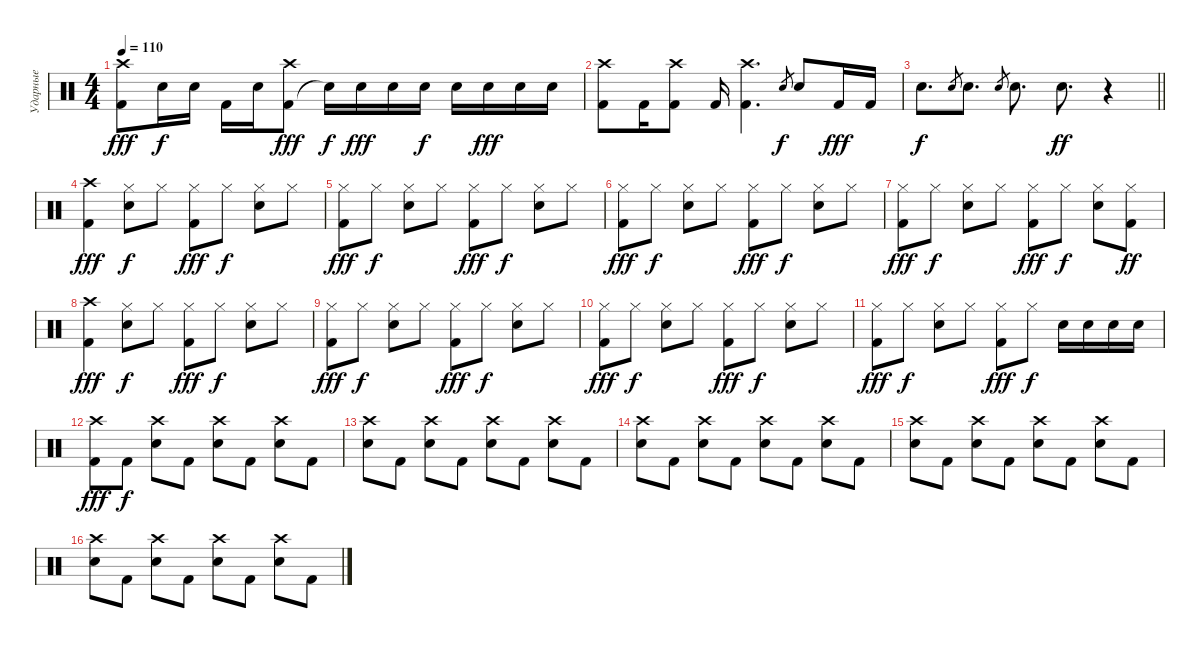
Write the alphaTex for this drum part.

\track ("Ударные" "Ударные") {instrument percussion}
\staff
\articulation defaults
\ts (4 4)
\tempo 110
\clef neutral
\ks c
("Kick (hit) 2" "Crash high (hit)").8{dy fff} "Snare (hit) 2".16{dy f} "Snare (hit) 2".16 "Kick (hit) 2".16 "Snare (hit) 2".16 ("Kick (hit) 2" "Crash high (hit)").8{dy fff} "Snare (hit)"{t}.16{dy f} "Electric Snare (hit)".16{dy fff} "Electric Snare (hit)".16 "Snare (hit) 2".16{dy f} "Snare (hit) 2".16 "Electric Snare (hit)".16{dy fff} "Electric Snare (hit)".16 "Electric Snare (hit)".16 |
("Kick (hit) 2" "Crash high (hit)").8 "Kick (hit) 2".16 ("Kick (hit) 2" "Crash high (hit)").8 "Kick (hit) 2".16 ("Kick (hit) 2" "Crash high (hit)").4{d} "Snare (hit) 2".8{gr dy f} "Snare (hit) 2".8 "Kick (hit) 2".16{dy fff} "Kick (hit) 2".16 |
\barLineRight lightlight "Snare (hit) 2".8{d dy f} "Electric Snare (hit)".8{gr} "Electric Snare (hit)".8{d} "Electric Snare (hit)".8{gr} "Electric Snare (hit)".8{d} "Snare (hit) 2".8{d dy ff}
r.4 |
("Kick (hit) 2" "Crash high (hit)").4{dy fff} ("Snare (hit) 2" "Hi-Hat (closed)").8{dy f} "Hi-Hat (closed)".8 ("Kick (hit) 2" "Hi-Hat (closed)").8{dy fff} "Hi-Hat (closed)".8{dy f} ("Snare (hit) 2" "Hi-Hat (closed)").8 "Hi-Hat (closed)".8 |
("Kick (hit) 2" "Hi-Hat (closed)").8{dy fff} "Hi-Hat (closed)".8{dy f} ("Snare (hit) 2" "Hi-Hat (closed)").8 "Hi-Hat (closed)".8 ("Kick (hit) 2" "Hi-Hat (closed)").8{dy fff} "Hi-Hat (closed)".8{dy f} ("Snare (hit) 2" "Hi-Hat (closed)").8 "Hi-Hat (closed)".8 |
("Kick (hit) 2" "Hi-Hat (closed)").8{dy fff} "Hi-Hat (closed)".8{dy f} ("Snare (hit) 2" "Hi-Hat (closed)").8 "Hi-Hat (closed)".8 ("Kick (hit) 2" "Hi-Hat (closed)").8{dy fff} "Hi-Hat (closed)".8{dy f} ("Snare (hit) 2" "Hi-Hat (closed)").8 "Hi-Hat (closed)".8 |
("Kick (hit) 2" "Hi-Hat (closed)").8{dy fff} "Hi-Hat (closed)".8{dy f} ("Snare (hit) 2" "Hi-Hat (closed)").8 "Hi-Hat (closed)".8 ("Kick (hit) 2" "Hi-Hat (closed)").8{dy fff} "Hi-Hat (closed)".8{dy f} ("Snare (hit) 2" "Hi-Hat (closed)").8 ("Kick (hit) 2" "Hi-Hat (closed)").8{dy ff} |
("Kick (hit) 2" "Crash high (hit)").4{dy fff} ("Snare (hit) 2" "Hi-Hat (closed)").8{dy f} "Hi-Hat (closed)".8 ("Kick (hit) 2" "Hi-Hat (closed)").8{dy fff} "Hi-Hat (closed)".8{dy f} ("Snare (hit) 2" "Hi-Hat (closed)").8 "Hi-Hat (closed)".8 |
("Kick (hit) 2" "Hi-Hat (closed)").8{dy fff} "Hi-Hat (closed)".8{dy f} ("Snare (hit) 2" "Hi-Hat (closed)").8 "Hi-Hat (closed)".8 ("Kick (hit) 2" "Hi-Hat (closed)").8{dy fff} "Hi-Hat (closed)".8{dy f} ("Snare (hit) 2" "Hi-Hat (closed)").8 "Hi-Hat (closed)".8 |
("Kick (hit) 2" "Hi-Hat (closed)").8{dy fff} "Hi-Hat (closed)".8{dy f} ("Snare (hit) 2" "Hi-Hat (closed)").8 "Hi-Hat (closed)".8 ("Kick (hit) 2" "Hi-Hat (closed)").8{dy fff} "Hi-Hat (closed)".8{dy f} ("Snare (hit) 2" "Hi-Hat (closed)").8 "Hi-Hat (closed)".8 |
("Kick (hit) 2" "Hi-Hat (closed)").8{dy fff} "Hi-Hat (closed)".8{dy f} ("Snare (hit) 2" "Hi-Hat (closed)").8 "Hi-Hat (closed)".8 ("Kick (hit) 2" "Hi-Hat (closed)").8{dy fff} "Hi-Hat (closed)".8{dy f} "Snare (hit) 2".16 "Snare (hit) 2".16 "Snare (hit) 2".16 "Snare (hit) 2".16 |
("Kick (hit) 2" "Crash high (hit)").8{dy fff} "Kick (hit) 2".8{dy f} ("Snare (hit) 2" "Crash high (hit)").8 "Kick (hit) 2".8 ("Snare (hit) 2" "Crash high (hit)").8 "Kick (hit) 2".8 ("Snare (hit) 2" "Crash high (hit)").8 "Kick (hit) 2".8 |
("Snare (hit) 2" "Crash high (hit)").8 "Kick (hit) 2".8 ("Snare (hit) 2" "Crash high (hit)").8 "Kick (hit) 2".8 ("Snare (hit) 2" "Crash high (hit)").8 "Kick (hit) 2".8 ("Snare (hit) 2" "Crash high (hit)").8 "Kick (hit) 2".8 |
("Snare (hit) 2" "Crash high (hit)").8 "Kick (hit) 2".8 ("Snare (hit) 2" "Crash high (hit)").8 "Kick (hit) 2".8 ("Snare (hit) 2" "Crash high (hit)").8 "Kick (hit) 2".8 ("Snare (hit) 2" "Crash high (hit)").8 "Kick (hit) 2".8 |
("Snare (hit) 2" "Crash high (hit)").8 "Kick (hit) 2".8 ("Snare (hit) 2" "Crash high (hit)").8 "Kick (hit) 2".8 ("Snare (hit) 2" "Crash high (hit)").8 "Kick (hit) 2".8 ("Snare (hit) 2" "Crash high (hit)").8 "Kick (hit) 2".8 |
("Snare (hit) 2" "Crash high (hit)").8 "Kick (hit) 2".8 ("Snare (hit) 2" "Crash high (hit)").8 "Kick (hit) 2".8 ("Snare (hit) 2" "Crash high (hit)").8 "Kick (hit) 2".8 ("Snare (hit) 2" "Crash high (hit)").8 "Kick (hit) 2".8
